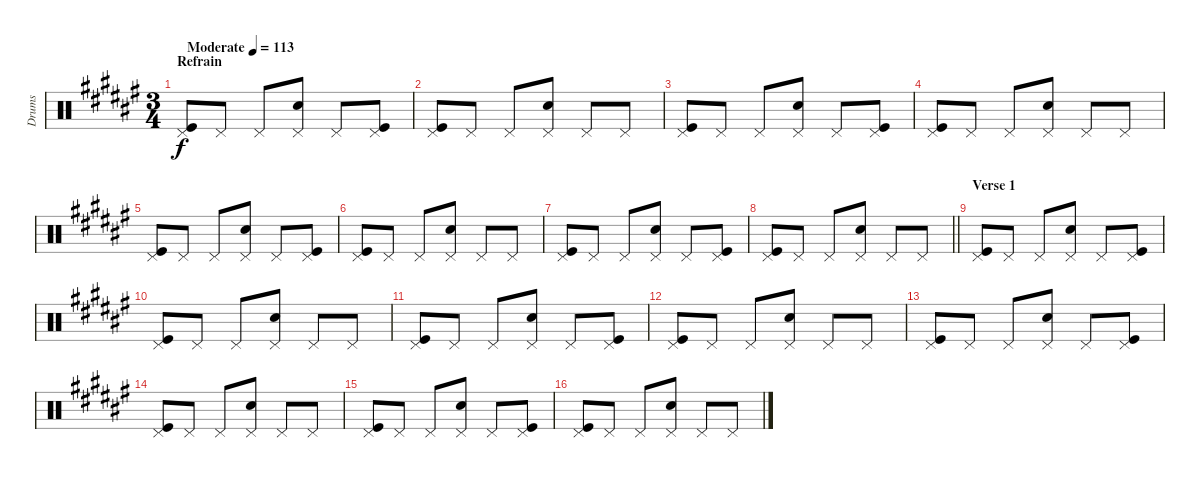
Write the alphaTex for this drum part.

\track ("Drums" "Drums") {instrument percussion}
\staff {score}
\articulation defaults
\ts (3 4)
\section ("" "Refrain")
\tempo (113 "Moderate")
\clef neutral
\ks f#
("Pedal Hi-Hat (hit)" "Kick (hit)").8{dy f} "Pedal Hi-Hat (hit)".8 "Pedal Hi-Hat (hit)".8 ("Pedal Hi-Hat (hit)" "Snare (hit) 2").8 "Pedal Hi-Hat (hit)".8 ("Pedal Hi-Hat (hit)" "Kick (hit)").8 |
("Pedal Hi-Hat (hit)" "Kick (hit)").8 "Pedal Hi-Hat (hit)".8 "Pedal Hi-Hat (hit)".8 ("Pedal Hi-Hat (hit)" "Snare (hit) 2").8 "Pedal Hi-Hat (hit)".8 "Pedal Hi-Hat (hit)".8 |
("Pedal Hi-Hat (hit)" "Kick (hit)").8 "Pedal Hi-Hat (hit)".8 "Pedal Hi-Hat (hit)".8 ("Pedal Hi-Hat (hit)" "Snare (hit) 2").8 "Pedal Hi-Hat (hit)".8 ("Pedal Hi-Hat (hit)" "Kick (hit)").8 |
("Pedal Hi-Hat (hit)" "Kick (hit)").8 "Pedal Hi-Hat (hit)".8 "Pedal Hi-Hat (hit)".8 ("Pedal Hi-Hat (hit)" "Snare (hit) 2").8 "Pedal Hi-Hat (hit)".8 "Pedal Hi-Hat (hit)".8 |
("Pedal Hi-Hat (hit)" "Kick (hit)").8 "Pedal Hi-Hat (hit)".8 "Pedal Hi-Hat (hit)".8 ("Pedal Hi-Hat (hit)" "Snare (hit) 2").8 "Pedal Hi-Hat (hit)".8 ("Pedal Hi-Hat (hit)" "Kick (hit)").8 |
("Pedal Hi-Hat (hit)" "Kick (hit)").8 "Pedal Hi-Hat (hit)".8 "Pedal Hi-Hat (hit)".8 ("Pedal Hi-Hat (hit)" "Snare (hit) 2").8 "Pedal Hi-Hat (hit)".8 "Pedal Hi-Hat (hit)".8 |
("Pedal Hi-Hat (hit)" "Kick (hit)").8 "Pedal Hi-Hat (hit)".8 "Pedal Hi-Hat (hit)".8 ("Pedal Hi-Hat (hit)" "Snare (hit) 2").8 "Pedal Hi-Hat (hit)".8 ("Pedal Hi-Hat (hit)" "Kick (hit)").8 |
\barLineRight lightlight
("Pedal Hi-Hat (hit)" "Kick (hit)").8 "Pedal Hi-Hat (hit)".8 "Pedal Hi-Hat (hit)".8 ("Pedal Hi-Hat (hit)" "Snare (hit) 2").8 "Pedal Hi-Hat (hit)".8 "Pedal Hi-Hat (hit)".8 |
\section ("" "Verse 1")
("Pedal Hi-Hat (hit)" "Kick (hit)").8 "Pedal Hi-Hat (hit)".8 "Pedal Hi-Hat (hit)".8 ("Pedal Hi-Hat (hit)" "Snare (hit) 2").8 "Pedal Hi-Hat (hit)".8 ("Pedal Hi-Hat (hit)" "Kick (hit)").8 |
("Pedal Hi-Hat (hit)" "Kick (hit)").8 "Pedal Hi-Hat (hit)".8 "Pedal Hi-Hat (hit)".8 ("Pedal Hi-Hat (hit)" "Snare (hit) 2").8 "Pedal Hi-Hat (hit)".8 "Pedal Hi-Hat (hit)".8 |
("Pedal Hi-Hat (hit)" "Kick (hit)").8 "Pedal Hi-Hat (hit)".8 "Pedal Hi-Hat (hit)".8 ("Pedal Hi-Hat (hit)" "Snare (hit) 2").8 "Pedal Hi-Hat (hit)".8 ("Pedal Hi-Hat (hit)" "Kick (hit)").8 |
("Pedal Hi-Hat (hit)" "Kick (hit)").8 "Pedal Hi-Hat (hit)".8 "Pedal Hi-Hat (hit)".8 ("Pedal Hi-Hat (hit)" "Snare (hit) 2").8 "Pedal Hi-Hat (hit)".8 "Pedal Hi-Hat (hit)".8 |
("Pedal Hi-Hat (hit)" "Kick (hit)").8 "Pedal Hi-Hat (hit)".8 "Pedal Hi-Hat (hit)".8 ("Pedal Hi-Hat (hit)" "Snare (hit) 2").8 "Pedal Hi-Hat (hit)".8 ("Pedal Hi-Hat (hit)" "Kick (hit)").8 |
("Pedal Hi-Hat (hit)" "Kick (hit)").8 "Pedal Hi-Hat (hit)".8 "Pedal Hi-Hat (hit)".8 ("Pedal Hi-Hat (hit)" "Snare (hit) 2").8 "Pedal Hi-Hat (hit)".8 "Pedal Hi-Hat (hit)".8 |
("Pedal Hi-Hat (hit)" "Kick (hit)").8 "Pedal Hi-Hat (hit)".8 "Pedal Hi-Hat (hit)".8 ("Pedal Hi-Hat (hit)" "Snare (hit) 2").8 "Pedal Hi-Hat (hit)".8 ("Pedal Hi-Hat (hit)" "Kick (hit)").8 |
("Pedal Hi-Hat (hit)" "Kick (hit)").8 "Pedal Hi-Hat (hit)".8 "Pedal Hi-Hat (hit)".8 ("Pedal Hi-Hat (hit)" "Snare (hit) 2").8 "Pedal Hi-Hat (hit)".8 "Pedal Hi-Hat (hit)".8
